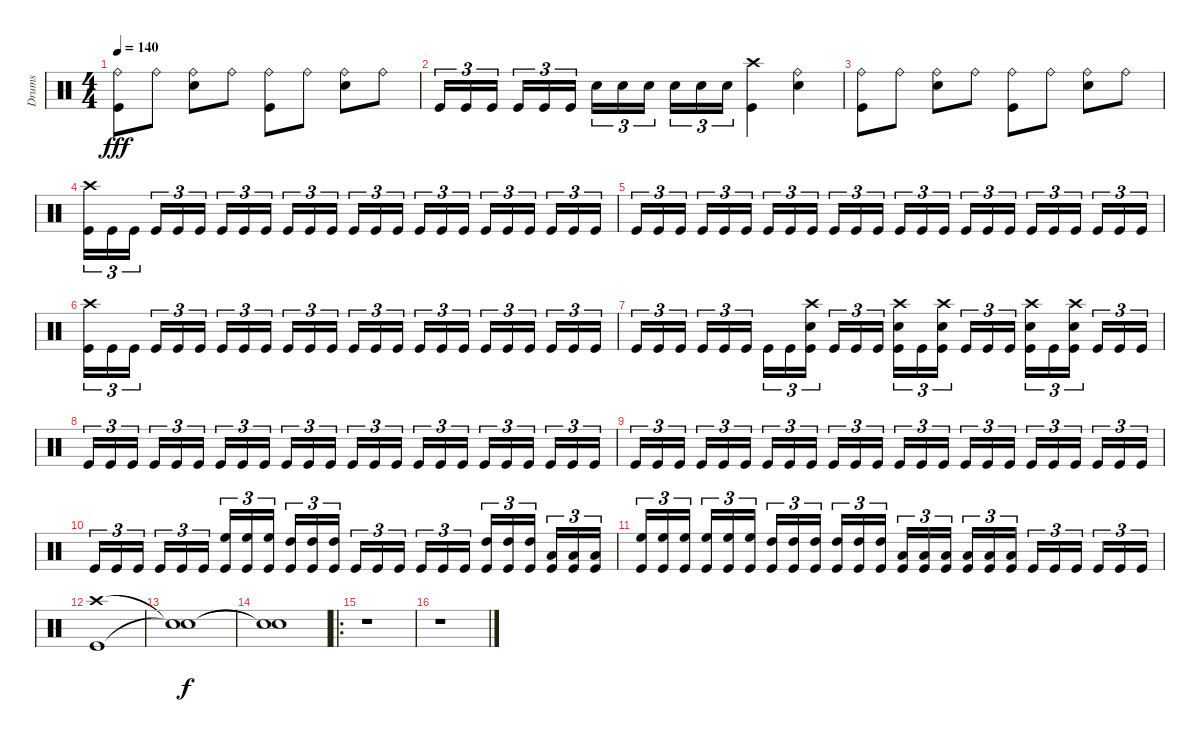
\track ("Drums" "Drums") {instrument percussion}
\staff {score}
\articulation defaults
\ts (4 4)
\tempo 140
\clef neutral
\ks c
("Ride (bell)" "Kick (hit)").8{dy fff} "Ride (bell)".8 ("Ride (bell)" "Snare (hit) 2").8 "Ride (bell)".8 ("Ride (bell)" "Kick (hit)").8 "Ride (bell)".8 ("Ride (bell)" "Snare (hit) 2").8 "Ride (bell)".8 |
"Kick (hit)".16{tu (3 2)} "Kick (hit)".16{tu (3 2)} "Kick (hit)".16{tu (3 2)} "Kick (hit)".16{tu (3 2)} "Kick (hit)".16{tu (3 2)} "Kick (hit)".16{tu (3 2)} "Snare (hit) 2".16{tu (3 2)} "Snare (hit) 2".16{tu (3 2)} "Snare (hit) 2".16{tu (3 2)} "Snare (hit) 2".16{tu (3 2)} "Snare (hit) 2".16{tu (3 2)} "Snare (hit) 2".16{tu (3 2)} ("Crash high (hit)" "Kick (hit)").4 ("Ride (bell)" "Snare (hit) 2").4 |
("Ride (bell)" "Kick (hit)").8 "Ride (bell)".8 ("Ride (bell)" "Snare (hit) 2").8 "Ride (bell)".8 ("Ride (bell)" "Kick (hit)").8 "Ride (bell)".8 ("Ride (bell)" "Snare (hit) 2").8 "Ride (bell)".8 |
("Kick (hit)" "Crash high (hit)").16{tu (3 2)} "Kick (hit)".16{tu (3 2)} "Kick (hit)".16{tu (3 2)} "Kick (hit)".16{tu (3 2)} "Kick (hit)".16{tu (3 2)} "Kick (hit)".16{tu (3 2)} "Kick (hit)".16{tu (3 2)} "Kick (hit)".16{tu (3 2)} "Kick (hit)".16{tu (3 2)} "Kick (hit)".16{tu (3 2)} "Kick (hit)".16{tu (3 2)} "Kick (hit)".16{tu (3 2)} "Kick (hit)".16{tu (3 2)} "Kick (hit)".16{tu (3 2)} "Kick (hit)".16{tu (3 2)} "Kick (hit)".16{tu (3 2)} "Kick (hit)".16{tu (3 2)} "Kick (hit)".16{tu (3 2)} "Kick (hit)".16{tu (3 2)} "Kick (hit)".16{tu (3 2)} "Kick (hit)".16{tu (3 2)} "Kick (hit)".16{tu (3 2)} "Kick (hit)".16{tu (3 2)} "Kick (hit)".16{tu (3 2)} |
"Kick (hit)".16{tu (3 2)} "Kick (hit)".16{tu (3 2)} "Kick (hit)".16{tu (3 2)} "Kick (hit)".16{tu (3 2)} "Kick (hit)".16{tu (3 2)} "Kick (hit)".16{tu (3 2)} "Kick (hit)".16{tu (3 2)} "Kick (hit)".16{tu (3 2)} "Kick (hit)".16{tu (3 2)} "Kick (hit)".16{tu (3 2)} "Kick (hit)".16{tu (3 2)} "Kick (hit)".16{tu (3 2)} "Kick (hit)".16{tu (3 2)} "Kick (hit)".16{tu (3 2)} "Kick (hit)".16{tu (3 2)} "Kick (hit)".16{tu (3 2)} "Kick (hit)".16{tu (3 2)} "Kick (hit)".16{tu (3 2)} "Kick (hit)".16{tu (3 2)} "Kick (hit)".16{tu (3 2)} "Kick (hit)".16{tu (3 2)} "Kick (hit)".16{tu (3 2)} "Kick (hit)".16{tu (3 2)} "Kick (hit)".16{tu (3 2)} |
("Kick (hit)" "Crash high (hit)").16{tu (3 2)} "Kick (hit)".16{tu (3 2)} "Kick (hit)".16{tu (3 2)} "Kick (hit)".16{tu (3 2)} "Kick (hit)".16{tu (3 2)} "Kick (hit)".16{tu (3 2)} "Kick (hit)".16{tu (3 2)} "Kick (hit)".16{tu (3 2)} "Kick (hit)".16{tu (3 2)} "Kick (hit)".16{tu (3 2)} "Kick (hit)".16{tu (3 2)} "Kick (hit)".16{tu (3 2)} "Kick (hit)".16{tu (3 2)} "Kick (hit)".16{tu (3 2)} "Kick (hit)".16{tu (3 2)} "Kick (hit)".16{tu (3 2)} "Kick (hit)".16{tu (3 2)} "Kick (hit)".16{tu (3 2)} "Kick (hit)".16{tu (3 2)} "Kick (hit)".16{tu (3 2)} "Kick (hit)".16{tu (3 2)} "Kick (hit)".16{tu (3 2)} "Kick (hit)".16{tu (3 2)} "Kick (hit)".16{tu (3 2)} |
"Kick (hit)".16{tu (3 2)} "Kick (hit)".16{tu (3 2)} "Kick (hit)".16{tu (3 2)} "Kick (hit)".16{tu (3 2)} "Kick (hit)".16{tu (3 2)} "Kick (hit)".16{tu (3 2)} "Kick (hit)".16{tu (3 2)} "Kick (hit)".16{tu (3 2)} ("Kick (hit)" "Snare (hit) 2" "Crash high (hit)").16{tu (3 2)} "Kick (hit)".16{tu (3 2)} "Kick (hit)".16{tu (3 2)} "Kick (hit)".16{tu (3 2)} ("Kick (hit)" "Snare (hit) 2" "Crash high (hit)").16{tu (3 2)} "Kick (hit)".16{tu (3 2)} ("Kick (hit)" "Snare (hit) 2" "Crash high (hit)").16{tu (3 2)} "Kick (hit)".16{tu (3 2)} "Kick (hit)".16{tu (3 2)} "Kick (hit)".16{tu (3 2)} ("Kick (hit)" "Snare (hit) 2" "Crash high (hit)").16{tu (3 2)} "Kick (hit)".16{tu (3 2)} ("Kick (hit)" "Snare (hit) 2" "Crash high (hit)").16{tu (3 2)} "Kick (hit)".16{tu (3 2)} "Kick (hit)".16{tu (3 2)} "Kick (hit)".16{tu (3 2)} |
"Kick (hit)".16{tu (3 2)} "Kick (hit)".16{tu (3 2)} "Kick (hit)".16{tu (3 2)} "Kick (hit)".16{tu (3 2)} "Kick (hit)".16{tu (3 2)} "Kick (hit)".16{tu (3 2)} "Kick (hit)".16{tu (3 2)} "Kick (hit)".16{tu (3 2)} "Kick (hit)".16{tu (3 2)} "Kick (hit)".16{tu (3 2)} "Kick (hit)".16{tu (3 2)} "Kick (hit)".16{tu (3 2)} "Kick (hit)".16{tu (3 2)} "Kick (hit)".16{tu (3 2)} "Kick (hit)".16{tu (3 2)} "Kick (hit)".16{tu (3 2)} "Kick (hit)".16{tu (3 2)} "Kick (hit)".16{tu (3 2)} "Kick (hit)".16{tu (3 2)} "Kick (hit)".16{tu (3 2)} "Kick (hit)".16{tu (3 2)} "Kick (hit)".16{tu (3 2)} "Kick (hit)".16{tu (3 2)} "Kick (hit)".16{tu (3 2)} |
"Kick (hit)".16{tu (3 2)} "Kick (hit)".16{tu (3 2)} "Kick (hit)".16{tu (3 2)} "Kick (hit)".16{tu (3 2)} "Kick (hit)".16{tu (3 2)} "Kick (hit)".16{tu (3 2)} "Kick (hit)".16{tu (3 2)} "Kick (hit)".16{tu (3 2)} "Kick (hit)".16{tu (3 2)} "Kick (hit)".16{tu (3 2)} "Kick (hit)".16{tu (3 2)} "Kick (hit)".16{tu (3 2)} "Kick (hit)".16{tu (3 2)} "Kick (hit)".16{tu (3 2)} "Kick (hit)".16{tu (3 2)} "Kick (hit)".16{tu (3 2)} "Kick (hit)".16{tu (3 2)} "Kick (hit)".16{tu (3 2)} "Kick (hit)".16{tu (3 2)} "Kick (hit)".16{tu (3 2)} "Kick (hit)".16{tu (3 2)} "Kick (hit)".16{tu (3 2)} "Kick (hit)".16{tu (3 2)} "Kick (hit)".16{tu (3 2)} |
"Kick (hit)".16{tu (3 2)} "Kick (hit)".16{tu (3 2)} "Kick (hit)".16{tu (3 2)} "Kick (hit)".16{tu (3 2)} "Kick (hit)".16{tu (3 2)} "Kick (hit)".16{tu (3 2)} ("Kick (hit)" "High Floor Tom (hit)").16{tu (3 2)} ("Kick (hit)" "High Floor Tom (hit)").16{tu (3 2)} ("Kick (hit)" "High Floor Tom (hit)").16{tu (3 2)} ("Kick (hit)" "High Tom (hit)").16{tu (3 2)} ("Kick (hit)" "High Tom (hit)").16{tu (3 2)} ("Kick (hit)" "High Tom (hit)").16{tu (3 2)} "Kick (hit)".16{tu (3 2)} "Kick (hit)".16{tu (3 2)} "Kick (hit)".16{tu (3 2)} "Kick (hit)".16{tu (3 2)} "Kick (hit)".16{tu (3 2)} "Kick (hit)".16{tu (3 2)} ("Kick (hit)" "High Tom (hit)").16{tu (3 2)} ("Kick (hit)" "High Tom (hit)").16{tu (3 2)} ("Kick (hit)" "High Tom (hit)").16{tu (3 2)} ("Kick (hit)" "Low Tom (hit)").16{tu (3 2)} ("Kick (hit)" "Low Tom (hit)").16{tu (3 2)} ("Kick (hit)" "Low Tom (hit)").16{tu (3 2)} |
("Kick (hit)" "High Floor Tom (hit)").16{tu (3 2)} ("Kick (hit)" "High Floor Tom (hit)").16{tu (3 2)} ("Kick (hit)" "High Floor Tom (hit)").16{tu (3 2)} ("Kick (hit)" "High Floor Tom (hit)").16{tu (3 2)} ("Kick (hit)" "High Floor Tom (hit)").16{tu (3 2)} ("Kick (hit)" "High Floor Tom (hit)").16{tu (3 2)} ("Kick (hit)" "High Tom (hit)").16{tu (3 2)} ("Kick (hit)" "High Tom (hit)").16{tu (3 2)} ("Kick (hit)" "High Tom (hit)").16{tu (3 2)} ("Kick (hit)" "High Tom (hit)").16{tu (3 2)} ("Kick (hit)" "High Tom (hit)").16{tu (3 2)} ("Kick (hit)" "High Tom (hit)").16{tu (3 2)} ("Kick (hit)" "Low Tom (hit)").16{tu (3 2)} ("Kick (hit)" "Low Tom (hit)").16{tu (3 2)} ("Kick (hit)" "Low Tom (hit)").16{tu (3 2)} ("Kick (hit)" "Low Tom (hit)").16{tu (3 2)} ("Kick (hit)" "Low Tom (hit)").16{tu (3 2)} ("Kick (hit)" "Low Tom (hit)").16{tu (3 2)} "Kick (hit)".16{tu (3 2)} "Kick (hit)".16{tu (3 2)} "Kick (hit)".16{tu (3 2)} "Kick (hit)".16{tu (3 2)} "Kick (hit)".16{tu (3 2)} "Kick (hit)".16{tu (3 2)} |
("Crash high (hit)" "Kick (hit)").1 |
("Snare (hit)"{t} "Snare (hit)"{t}).1{dy f} |
("Snare (hit)"{t} "Snare (hit)"{t}).1 |
\ro
r.1 |
r.1
